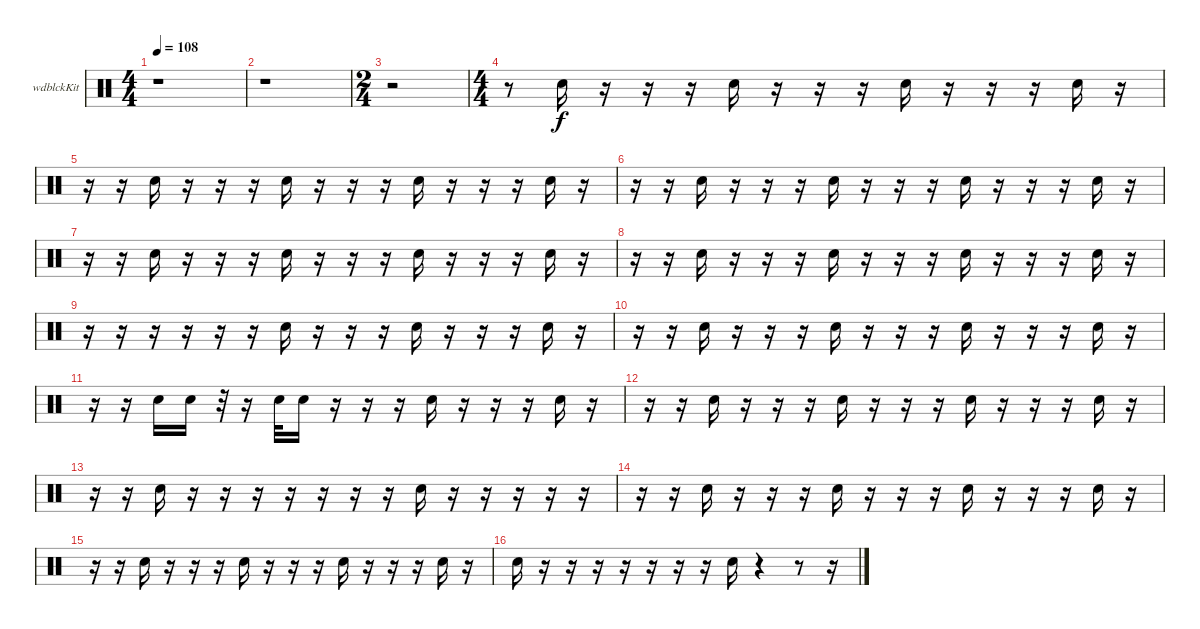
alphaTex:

\bracketExtendMode groupsimilarinstruments
\firstSystemTrackNameOrientation horizontal
\otherSystemsTrackNameOrientation horizontal
\track ("Woodblock" "wdblckKit") {instrument percussion}
\staff {score}
\articulation defaults
\ts (4 4)
\tempo 108
\clef neutral
\ks c
r.1{dy f} |
r.1 |
\ts (2 4)
\beaming (8 2 2)
r.2 |
\ts (4 4)
\beaming (8 2 2 2 2)
r.8 "Snare (hit) 2".16 r.16 r.16 r.16 "Snare (hit) 2".16 r.16 r.16 r.16 "Snare (hit) 2".16 r.16 r.16 r.16 "Snare (hit) 2".16 r.16 |
r.16 r.16 "Snare (hit) 2".16 r.16 r.16 r.16 "Snare (hit) 2".16 r.16 r.16 r.16 "Snare (hit) 2".16 r.16 r.16 r.16 "Snare (hit) 2".16 r.16 |
r.16 r.16 "Snare (hit) 2".16 r.16 r.16 r.16 "Snare (hit) 2".16 r.16 r.16 r.16 "Snare (hit) 2".16 r.16 r.16 r.16 "Snare (hit) 2".16 r.16 |
r.16 r.16 "Snare (hit) 2".16 r.16 r.16 r.16 "Snare (hit) 2".16 r.16 r.16 r.16 "Snare (hit) 2".16 r.16 r.16 r.16 "Snare (hit) 2".16 r.16 |
r.16 r.16 "Snare (hit) 2".16 r.16 r.16 r.16 "Snare (hit) 2".16 r.16 r.16 r.16 "Snare (hit) 2".16 r.16 r.16 r.16 "Snare (hit) 2".16 r.16 |
r.16 r.16 r.16 r.16 r.16 r.16 "Snare (hit) 2".16 r.16 r.16 r.16 "Snare (hit) 2".16 r.16 r.16 r.16 "Snare (hit) 2".16 r.16 |
r.16 r.16 "Snare (hit) 2".16 r.16 r.16 r.16 "Snare (hit) 2".16 r.16 r.16 r.16 "Snare (hit) 2".16 r.16 r.16 r.16 "Snare (hit) 2".16 r.16 |
r.16 r.16 "Snare (hit) 2".16 "Snare (hit) 2".16 r.32 r.16 "Snare (hit) 2".32 "Snare (hit) 2".16 r.16 r.16 r.16 "Snare (hit) 2".16 r.16 r.16 r.16 "Snare (hit) 2".16 r.16 |
r.16 r.16 "Snare (hit) 2".16 r.16 r.16 r.16 "Snare (hit) 2".16 r.16 r.16 r.16 "Snare (hit) 2".16 r.16 r.16 r.16 "Snare (hit) 2".16 r.16 |
r.16 r.16 "Snare (hit) 2".16 r.16 r.16 r.16 r.16 r.16 r.16 r.16 "Snare (hit) 2".16 r.16 r.16 r.16 r.16 r.16 |
r.16 r.16 "Snare (hit) 2".16 r.16 r.16 r.16 "Snare (hit) 2".16 r.16 r.16 r.16 "Snare (hit) 2".16 r.16 r.16 r.16 "Snare (hit) 2".16 r.16 |
r.16 r.16 "Snare (hit) 2".16 r.16 r.16 r.16 "Snare (hit) 2".16 r.16 r.16 r.16 "Snare (hit) 2".16 r.16 r.16 r.16 "Snare (hit) 2".16 r.16 |
"Snare (hit) 2".16 r.16 r.16 r.16 r.16 r.16 r.16 r.16 "Snare (hit) 2".16 r.4 r.8 r.16
